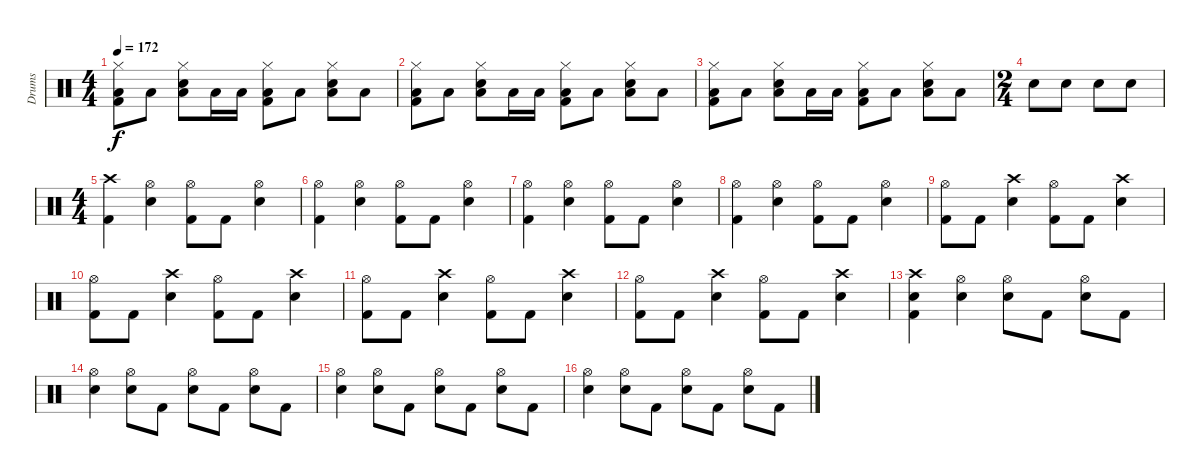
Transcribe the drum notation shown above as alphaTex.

\track ("Drums" "Drums") {instrument percussion}
\staff {score}
\articulation defaults
\ts (4 4)
\tempo 172
\clef neutral
\ks c
("Hi-Hat (closed)" "Low Floor Tom (hit)" "Kick (hit) 2").8{dy f} "Low Floor Tom (hit)".8 ("Hi-Hat (closed)" "Electric Snare (hit)" "Low Floor Tom (hit)").8 "Low Floor Tom (hit)".16 "Low Floor Tom (hit)".16 ("Hi-Hat (closed)" "Low Floor Tom (hit)" "Kick (hit) 2").8 "Low Floor Tom (hit)".8 ("Hi-Hat (closed)" "Electric Snare (hit)" "Low Floor Tom (hit)").8 "Low Floor Tom (hit)".8 |
("Hi-Hat (closed)" "Low Floor Tom (hit)" "Kick (hit) 2").8 "Low Floor Tom (hit)".8 ("Hi-Hat (closed)" "Electric Snare (hit)" "Low Floor Tom (hit)").8 "Low Floor Tom (hit)".16 "Low Floor Tom (hit)".16 ("Hi-Hat (closed)" "Low Floor Tom (hit)" "Kick (hit) 2").8 "Low Floor Tom (hit)".8 ("Hi-Hat (closed)" "Electric Snare (hit)" "Low Floor Tom (hit)").8 "Low Floor Tom (hit)".8 |
("Hi-Hat (closed)" "Low Floor Tom (hit)" "Kick (hit) 2").8 "Low Floor Tom (hit)".8 ("Hi-Hat (closed)" "Electric Snare (hit)" "Low Floor Tom (hit)").8 "Low Floor Tom (hit)".16 "Low Floor Tom (hit)".16 ("Hi-Hat (closed)" "Low Floor Tom (hit)" "Kick (hit) 2").8 "Low Floor Tom (hit)".8 ("Hi-Hat (closed)" "Electric Snare (hit)" "Low Floor Tom (hit)").8 "Low Floor Tom (hit)".8 |
\ts (2 4)
"Electric Snare (hit)".8 "Electric Snare (hit)".8 "Electric Snare (hit)".8 "Electric Snare (hit)".8 |
\ts (4 4)
("Crash high (hit)" "Kick (hit) 2").4 ("Hi-Hat (open)" "Electric Snare (hit)").4 ("Hi-Hat (open)" "Kick (hit) 2").8 "Kick (hit) 2".8 ("Hi-Hat (open)" "Electric Snare (hit)").4 |
("Hi-Hat (open)" "Kick (hit) 2").4 ("Hi-Hat (open)" "Electric Snare (hit)").4 ("Hi-Hat (open)" "Kick (hit) 2").8 "Kick (hit) 2".8 ("Hi-Hat (open)" "Electric Snare (hit)").4 |
("Hi-Hat (open)" "Kick (hit) 2").4 ("Hi-Hat (open)" "Electric Snare (hit)").4 ("Hi-Hat (open)" "Kick (hit) 2").8 "Kick (hit) 2".8 ("Hi-Hat (open)" "Electric Snare (hit)").4 |
("Hi-Hat (open)" "Kick (hit) 2").4 ("Hi-Hat (open)" "Electric Snare (hit)").4 ("Hi-Hat (open)" "Kick (hit) 2").8 "Kick (hit) 2".8 ("Hi-Hat (open)" "Electric Snare (hit)").4 |
("Hi-Hat (open)" "Kick (hit) 2").8 "Kick (hit) 2".8 ("Crash high (hit)" "Electric Snare (hit)").4 ("Hi-Hat (open)" "Kick (hit) 2").8 "Kick (hit) 2".8 ("Crash high (hit)" "Electric Snare (hit)").4 |
("Hi-Hat (open)" "Kick (hit) 2").8 "Kick (hit) 2".8 ("Crash high (hit)" "Electric Snare (hit)").4 ("Hi-Hat (open)" "Kick (hit) 2").8 "Kick (hit) 2".8 ("Crash high (hit)" "Electric Snare (hit)").4 |
("Hi-Hat (open)" "Kick (hit) 2").8 "Kick (hit) 2".8 ("Crash high (hit)" "Electric Snare (hit)").4 ("Hi-Hat (open)" "Kick (hit) 2").8 "Kick (hit) 2".8 ("Crash high (hit)" "Electric Snare (hit)").4 |
("Hi-Hat (open)" "Kick (hit) 2").8 "Kick (hit) 2".8 ("Crash high (hit)" "Electric Snare (hit)").4 ("Hi-Hat (open)" "Kick (hit) 2").8 "Kick (hit) 2".8 ("Crash high (hit)" "Electric Snare (hit)").4 |
("Crash high (hit)" "Electric Snare (hit)" "Kick (hit) 2").4 ("Hi-Hat (open)" "Electric Snare (hit)").4 ("Hi-Hat (open)" "Electric Snare (hit)").8 "Kick (hit) 2".8 ("Hi-Hat (open)" "Electric Snare (hit)").8 "Kick (hit) 2".8 |
("Hi-Hat (open)" "Electric Snare (hit)").4 ("Hi-Hat (open)" "Electric Snare (hit)").8 "Kick (hit) 2".8 ("Hi-Hat (open)" "Electric Snare (hit)").8 "Kick (hit) 2".8 ("Hi-Hat (open)" "Electric Snare (hit)").8 "Kick (hit) 2".8 |
("Hi-Hat (open)" "Electric Snare (hit)").4 ("Hi-Hat (open)" "Electric Snare (hit)").8 "Kick (hit) 2".8 ("Hi-Hat (open)" "Electric Snare (hit)").8 "Kick (hit) 2".8 ("Hi-Hat (open)" "Electric Snare (hit)").8 "Kick (hit) 2".8 |
("Hi-Hat (open)" "Electric Snare (hit)").4 ("Hi-Hat (open)" "Electric Snare (hit)").8 "Kick (hit) 2".8 ("Hi-Hat (open)" "Electric Snare (hit)").8 "Kick (hit) 2".8 ("Hi-Hat (open)" "Electric Snare (hit)").8 "Kick (hit) 2".8
